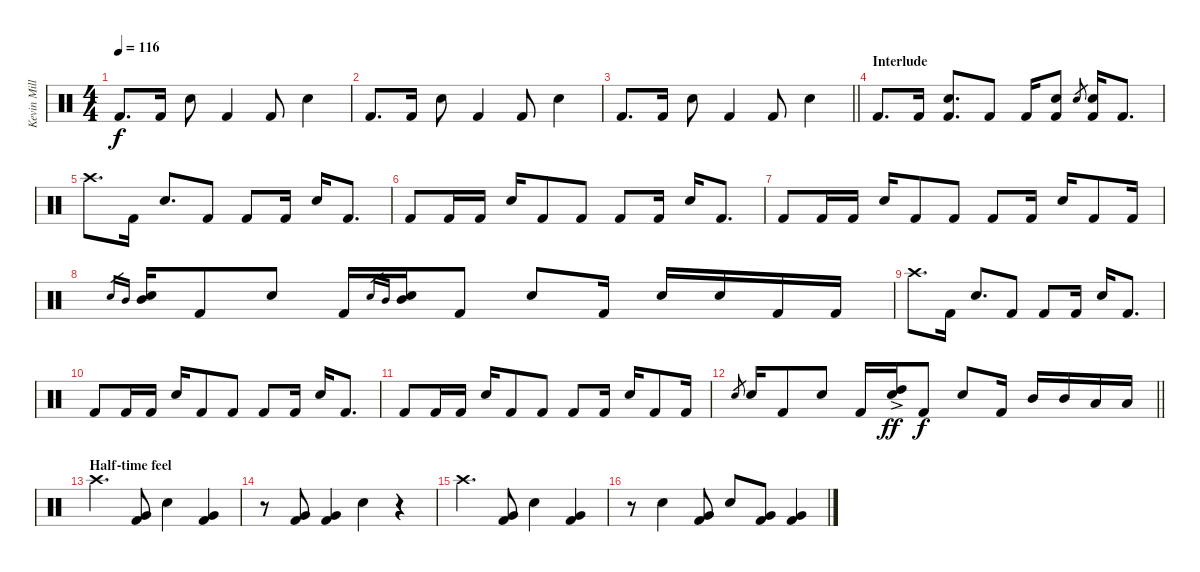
\track ("Kevin Miller (Drums)" "Kevin Mill") {instrument percussion}
\staff {score}
\articulation defaults
\ts (4 4)
\tempo 116
\clef neutral
\ks c "Kick (hit) 2".8{d dy f} "Kick (hit) 2".16 "Electric Snare (hit)".8 "Kick (hit) 2".4 "Kick (hit) 2".8 "Electric Snare (hit)".4
|
"Kick (hit) 2".8{d} "Kick (hit) 2".16 "Electric Snare (hit)".8 "Kick (hit) 2".4 "Kick (hit) 2".8 "Electric Snare (hit)".4 |
\barLineRight lightlight "Kick (hit) 2".8{d} "Kick (hit) 2".16 "Electric Snare (hit)".8 "Kick (hit) 2".4 "Kick (hit) 2".8 "Electric Snare (hit)".4
|
\section ("" "Interlude")
"Kick (hit) 2".8{d} "Kick (hit) 2".16 ("Electric Snare (hit)" "Kick (hit) 2").8{d volume 10} "Kick (hit) 2".8{volume 14} "Kick (hit) 2".16 ("Electric Snare (hit)" "Kick (hit) 2").8{volume 10} "Electric Snare (hit)".8{gr} ("Electric Snare (hit)" "Kick (hit) 2").16{volume 10} "Kick (hit) 2".8{d volume 14} |
"Crash high (hit)".8{d} "Kick (hit) 2".16 "Electric Snare (hit)".8{d} "Kick (hit) 2".8 "Kick (hit) 2".8 "Kick (hit) 2".16 "Electric Snare (hit)".16 "Kick (hit) 2".8{d} |
"Kick (hit) 2".8 "Kick (hit) 2".16 "Kick (hit) 2".16 "Electric Snare (hit)".16 "Kick (hit) 2".8 "Kick (hit) 2".8 "Kick (hit) 2".8 "Kick (hit) 2".16 "Electric Snare (hit)".16 "Kick (hit) 2".8{d} |
"Kick (hit) 2".8 "Kick (hit) 2".16 "Kick (hit) 2".16 "Electric Snare (hit)".16 "Kick (hit) 2".8 "Kick (hit) 2".8 "Kick (hit) 2".8 "Kick (hit) 2".16 "Electric Snare (hit)".16 "Kick (hit) 2".8 "Kick (hit) 2".16 |
"Electric Snare (hit)".16{gr} "Mid Tom (hit)".16{gr} ("Electric Snare (hit)" "Mid Tom (hit)").16 "Kick (hit) 2".8 "Electric Snare (hit)".8 "Kick (hit) 2".16 "Electric Snare (hit)".16{gr} "Mid Tom (hit)".16{gr} ("Electric Snare (hit)" "Mid Tom (hit)").16 "Kick (hit) 2".8 "Electric Snare (hit)".8 "Kick (hit) 2".16 "Electric Snare (hit)".16 "Electric Snare (hit)".16 "Kick (hit) 2".16 "Kick (hit) 2".16 |
"Crash high (hit)".8{d} "Kick (hit) 2".16 "Electric Snare (hit)".8{d} "Kick (hit) 2".8 "Kick (hit) 2".8 "Kick (hit) 2".16 "Electric Snare (hit)".16 "Kick (hit) 2".8{d} |
"Kick (hit) 2".8 "Kick (hit) 2".16 "Kick (hit) 2".16 "Electric Snare (hit)".16 "Kick (hit) 2".8 "Kick (hit) 2".8 "Kick (hit) 2".8 "Kick (hit) 2".16 "Electric Snare (hit)".16 "Kick (hit) 2".8{d} |
"Kick (hit) 2".8 "Kick (hit) 2".16 "Kick (hit) 2".16 "Electric Snare (hit)".16 "Kick (hit) 2".8 "Kick (hit) 2".8 "Kick (hit) 2".8 "Kick (hit) 2".16 "Electric Snare (hit)".16 "Kick (hit) 2".8 "Kick (hit) 2".16 |
\barLineRight lightlight "Electric Snare (hit)".8{gr} "Electric Snare (hit)".16 "Kick (hit) 2".8 "Electric Snare (hit)".8 "Kick (hit) 2".16
("Electric Snare (hit)" "High Tom (hit)"{ac}).16{dy ff} "Kick (hit) 2".8{dy f} "Electric Snare (hit)".8 "Kick (hit) 2".16 "Mid Tom (hit)".16 "Mid Tom (hit)".16 "Low Tom (hit)".16 "Low Tom (hit)".16 |
\section ("" "Half-time feel")
"Crash high (hit)".4{d} ("Kick (hit) 2" "Very Low Tom (hit)").8 "Electric Snare (hit)".4 ("Kick (hit) 2" "Very Low Tom (hit)").4 |
r.8 ("Kick (hit) 2" "Very Low Tom (hit)").8 ("Kick (hit) 2" "Very Low Tom (hit)").4 "Electric Snare (hit)".4 r.4 |
"Crash high (hit)".4{d} ("Kick (hit) 2" "Very Low Tom (hit)").8 "Electric Snare (hit)".4 ("Kick (hit) 2" "Very Low Tom (hit)").4 |
r.8 "Electric Snare (hit)".4 ("Kick (hit) 2" "Very Low Tom (hit)").8 "Electric Snare (hit)".8 ("Kick (hit) 2" "Very Low Tom (hit)").8 ("Kick (hit) 2" "Very Low Tom (hit)").4
